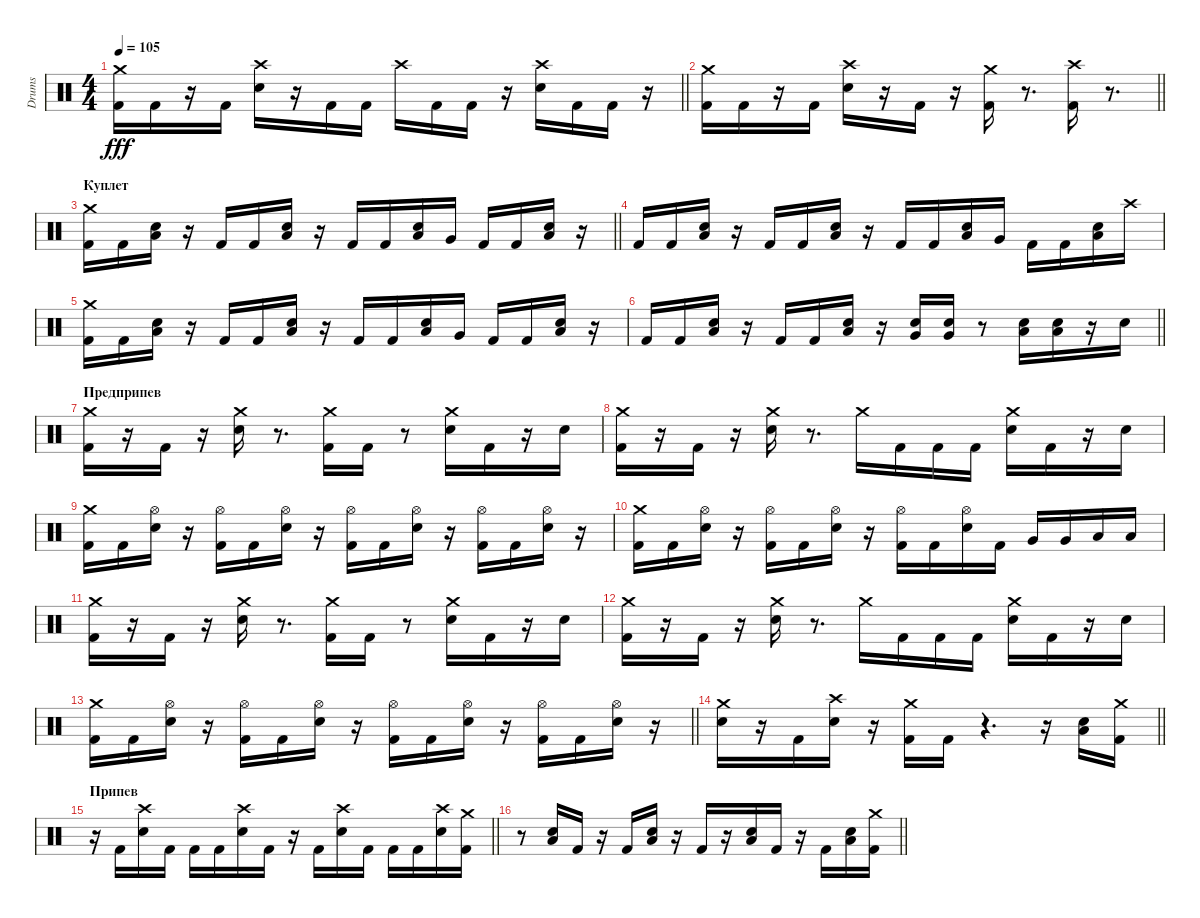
\track ("Drums" "Drums") {instrument percussion}
\staff {score}
\articulation defaults
\ts (4 4)
\tempo 105
\clef neutral
\barLineRight lightlight
\ks c
("Kick (hit) 2" "Crash medium (hit)").16{dy fff} "Kick (hit) 2".16 r.16 "Kick (hit) 2".16 ("Electric Snare (hit)" "Crash high (hit)").16 r.16 "Kick (hit) 2".16 "Kick (hit) 2".16 "Crash high (hit)".16 "Kick (hit) 2".16 "Kick (hit) 2".16 r.16 ("Electric Snare (hit)" "Crash high (hit)").16 "Kick (hit) 2".16 "Kick (hit) 2".16 r.16 |
\section ("" "")
\barLineRight lightlight
("Kick (hit) 2" "Crash medium (hit)").16 "Kick (hit) 2".16 r.16 "Kick (hit) 2".16 ("Electric Snare (hit)" "Crash high (hit)").16 r.16 "Kick (hit) 2".16 r.16 ("Kick (hit) 2" "Crash medium (hit)").16 r.8{d} ("Kick (hit) 2" "Crash high (hit)").16 r.8{d} |
\section ("" "Куплет")
\barLineRight lightlight
("Kick (hit) 2" "Crash medium (hit)").16 "Kick (hit) 2".16 ("Electric Snare (hit)" "Low Floor Tom (hit)").16 r.16 "Kick (hit) 2".16 "Kick (hit) 2".16 ("Electric Snare (hit)" "Low Floor Tom (hit)").16 r.16 "Kick (hit) 2".16 "Kick (hit) 2".16 ("Electric Snare (hit)" "Low Floor Tom (hit)").16 "Very Low Tom (hit)".16 "Kick (hit) 2".16 "Kick (hit) 2".16 ("Electric Snare (hit)" "Low Floor Tom (hit)").16 r.16 |
"Kick (hit) 2".16 "Kick (hit) 2".16 ("Electric Snare (hit)" "Low Floor Tom (hit)").16 r.16 "Kick (hit) 2".16 "Kick (hit) 2".16 ("Electric Snare (hit)" "Low Floor Tom (hit)").16 r.16 "Kick (hit) 2".16 "Kick (hit) 2".16 ("Electric Snare (hit)" "Low Floor Tom (hit)").16 "Very Low Tom (hit)".16 "Kick (hit) 2".16 "Kick (hit) 2".16 ("Electric Snare (hit)" "Low Floor Tom (hit)").16 "Crash high (hit)".16 |
("Kick (hit) 2" "Crash medium (hit)").16 "Kick (hit) 2".16 ("Electric Snare (hit)" "Low Floor Tom (hit)").16 r.16 "Kick (hit) 2".16 "Kick (hit) 2".16 ("Electric Snare (hit)" "Low Floor Tom (hit)").16 r.16 "Kick (hit) 2".16 "Kick (hit) 2".16 ("Electric Snare (hit)" "Low Floor Tom (hit)").16 "Very Low Tom (hit)".16 "Kick (hit) 2".16 "Kick (hit) 2".16 ("Electric Snare (hit)" "Low Floor Tom (hit)").16 r.16 |
\barLineRight lightlight "Kick (hit) 2".16 "Kick (hit) 2".16
("Electric Snare (hit)" "Low Floor Tom (hit)").16 r.16 "Kick (hit) 2".16 "Kick (hit) 2".16 ("Electric Snare (hit)" "Low Floor Tom (hit)").16 r.16 ("Electric Snare (hit)" "Very Low Tom (hit)").16 ("Electric Snare (hit)" "Very Low Tom (hit)").16 r.8 ("Electric Snare (hit)" "Low Floor Tom (hit)").16 ("Electric Snare (hit)" "Low Floor Tom (hit)").16 r.16 "Electric Snare (hit)".16 |
\section ("" "Предприпев")
("Kick (hit) 2" "Crash medium (hit)").16 r.16 "Kick (hit) 2".16 r.16 ("Electric Snare (hit)" "Crash medium (hit)").16 r.8{d} ("Kick (hit) 2" "Crash medium (hit)").16 "Kick (hit) 2".16 r.8 ("Electric Snare (hit)" "Crash medium (hit)").16 "Kick (hit) 2".16 r.16 "Electric Snare (hit)".16 |
("Kick (hit) 2" "Crash medium (hit)").16 r.16 "Kick (hit) 2".16 r.16 ("Electric Snare (hit)" "Crash medium (hit)").16 r.8{d} "Crash medium (hit)".16 "Kick (hit) 2".16 "Kick (hit) 2".16 "Kick (hit) 2".16 ("Electric Snare (hit)" "Crash medium (hit)").16 "Kick (hit) 2".16 r.16 "Electric Snare (hit)".16 |
("Kick (hit) 2" "Crash medium (hit)").16 "Kick (hit) 2".16 ("Electric Snare (hit)" "Hi-Hat (open)").16 r.16 ("Kick (hit) 2" "Hi-Hat (open)").16 "Kick (hit) 2".16 ("Electric Snare (hit)" "Hi-Hat (open)").16 r.16 ("Kick (hit) 2" "Hi-Hat (open)").16 "Kick (hit) 2".16 ("Electric Snare (hit)" "Hi-Hat (open)").16 r.16 ("Kick (hit) 2" "Hi-Hat (open)").16 "Kick (hit) 2".16 ("Electric Snare (hit)" "Hi-Hat (open)").16 r.16 |
("Kick (hit) 2" "Crash medium (hit)").16 "Kick (hit) 2".16 ("Electric Snare (hit)" "Hi-Hat (open)").16 r.16 ("Kick (hit) 2" "Hi-Hat (open)").16 "Kick (hit) 2".16 ("Electric Snare (hit)" "Hi-Hat (open)").16 r.16 ("Kick (hit) 2" "Hi-Hat (open)").16 "Kick (hit) 2".16 ("Electric Snare (hit)" "Hi-Hat (open)").16 "Kick (hit) 2".16 "Very Low Tom (hit)".16 "Very Low Tom (hit)".16 "Low Floor Tom (hit)".16 "Low Floor Tom (hit)".16 |
("Kick (hit) 2" "Crash medium (hit)").16 r.16 "Kick (hit) 2".16 r.16 ("Electric Snare (hit)" "Crash medium (hit)").16 r.8{d} ("Kick (hit) 2" "Crash medium (hit)").16 "Kick (hit) 2".16 r.8 ("Electric Snare (hit)" "Crash medium (hit)").16 "Kick (hit) 2".16 r.16 "Electric Snare (hit)".16 |
("Kick (hit) 2" "Crash medium (hit)").16 r.16 "Kick (hit) 2".16 r.16 ("Electric Snare (hit)" "Crash medium (hit)").16 r.8{d} "Crash medium (hit)".16 "Kick (hit) 2".16 "Kick (hit) 2".16 "Kick (hit) 2".16 ("Electric Snare (hit)" "Crash medium (hit)").16 "Kick (hit) 2".16 r.16 "Electric Snare (hit)".16 |
\barLineRight lightlight
("Kick (hit) 2" "Crash medium (hit)").16 "Kick (hit) 2".16 ("Electric Snare (hit)" "Hi-Hat (open)").16 r.16 ("Kick (hit) 2" "Hi-Hat (open)").16 "Kick (hit) 2".16 ("Electric Snare (hit)" "Hi-Hat (open)").16 r.16 ("Kick (hit) 2" "Hi-Hat (open)").16 "Kick (hit) 2".16 ("Electric Snare (hit)" "Hi-Hat (open)").16 r.16 ("Kick (hit) 2" "Hi-Hat (open)").16 "Kick (hit) 2".16 ("Electric Snare (hit)" "Hi-Hat (open)").16 r.16 |
\section ("" "")
\barLineRight lightlight
("Electric Snare (hit)" "Crash medium (hit)").16 r.16 "Kick (hit) 2".16 ("Electric Snare (hit)" "Crash high (hit)").16 r.16 ("Kick (hit) 2" "Crash medium (hit)").16 "Kick (hit) 2".16 r.4{d} r.16 ("Electric Snare (hit)" "Low Floor Tom (hit)").16 ("Kick (hit) 2" "Crash medium (hit)").16 |
\section ("" "Припев")
\barLineRight lightlight
r.16 "Kick (hit) 2".16 ("Electric Snare (hit)" "Crash high (hit)").16 "Kick (hit) 2".16 "Kick (hit) 2".16 "Kick (hit) 2".16 ("Electric Snare (hit)" "Crash high (hit)").16 "Kick (hit) 2".16 r.16 "Kick (hit) 2".16 ("Electric Snare (hit)" "Crash high (hit)").16 "Kick (hit) 2".16 "Kick (hit) 2".16 "Kick (hit) 2".16 ("Electric Snare (hit)" "Crash high (hit)").16 ("Kick (hit) 2" "Crash medium (hit)").16 |
\barLineRight lightlight
r.8 ("Electric Snare (hit)" "Low Floor Tom (hit)").16 "Kick (hit) 2".16 r.16 "Kick (hit) 2".16 ("Electric Snare (hit)" "Low Floor Tom (hit)").16 r.16 "Kick (hit) 2".16 r.16 ("Electric Snare (hit)" "Low Floor Tom (hit)").16 "Kick (hit) 2".16 r.16 "Kick (hit) 2".16 ("Electric Snare (hit)" "Low Floor Tom (hit)").16 ("Kick (hit) 2" "Crash medium (hit)").16
